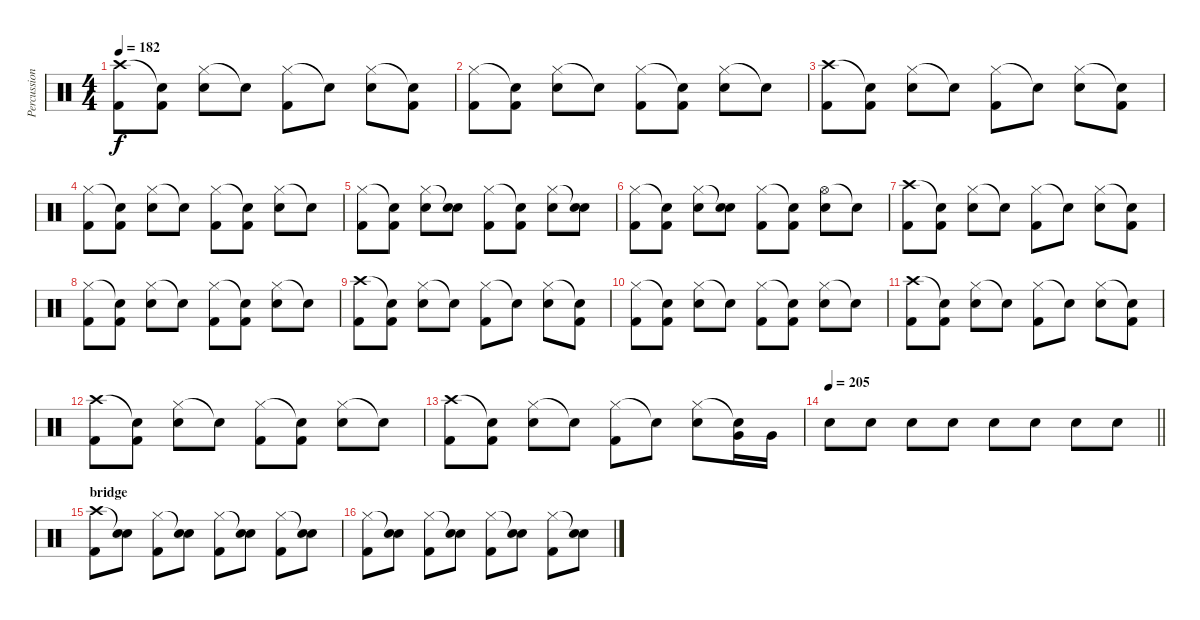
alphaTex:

\track ("Percussioni" "Percussion") {instrument percussion}
\staff {score}
\articulation defaults
\ts (4 4)
\tempo 182
\clef neutral
\ks c
("Crash high (hit)" "Kick (hit) 2").8{dy f} ("Snare (hit)"{t} "Kick (hit) 2").8 ("Hi-Hat (closed)" "Snare (hit) 2").8 "Snare (hit)"{t}.8 ("Hi-Hat (closed)" "Kick (hit) 2").8 "Snare (hit)"{t}.8 ("Hi-Hat (closed)" "Snare (hit) 2").8 ("Snare (hit)"{t} "Kick (hit) 2").8 |
("Hi-Hat (closed)" "Kick (hit) 2").8 ("Snare (hit)"{t} "Kick (hit) 2").8 ("Hi-Hat (closed)" "Snare (hit) 2").8 "Snare (hit)"{t}.8 ("Hi-Hat (closed)" "Kick (hit) 2").8 ("Snare (hit)"{t} "Kick (hit) 2").8 ("Hi-Hat (closed)" "Snare (hit) 2").8 "Snare (hit)"{t}.8 |
("Crash high (hit)" "Kick (hit) 2").8 ("Snare (hit)"{t} "Kick (hit) 2").8 ("Hi-Hat (closed)" "Snare (hit) 2").8 "Snare (hit)"{t}.8 ("Hi-Hat (closed)" "Kick (hit) 2").8 "Snare (hit)"{t}.8 ("Hi-Hat (closed)" "Snare (hit) 2").8 ("Snare (hit)"{t} "Kick (hit) 2").8 |
("Hi-Hat (closed)" "Kick (hit) 2").8 ("Snare (hit)"{t} "Kick (hit) 2").8 ("Hi-Hat (closed)" "Snare (hit) 2").8 "Snare (hit)"{t}.8 ("Hi-Hat (closed)" "Kick (hit) 2").8 ("Snare (hit)"{t} "Kick (hit) 2").8 ("Hi-Hat (closed)" "Snare (hit) 2").8 "Snare (hit)"{t}.8 |
("Hi-Hat (closed)" "Kick (hit) 2").8 ("Snare (hit)"{t} "Kick (hit) 2").8 ("Hi-Hat (closed)" "Snare (hit) 2").8 ("Snare (hit)"{t} "Snare (hit) 2").8 ("Hi-Hat (closed)" "Kick (hit) 2").8 ("Snare (hit)"{t} "Kick (hit) 2").8 ("Hi-Hat (closed)" "Snare (hit) 2").8 ("Snare (hit)"{t} "Snare (hit) 2").8 |
("Hi-Hat (closed)" "Kick (hit) 2").8 ("Snare (hit)"{t} "Kick (hit) 2").8 ("Hi-Hat (closed)" "Snare (hit) 2").8 ("Snare (hit)"{t} "Snare (hit) 2").8 ("Hi-Hat (closed)" "Kick (hit) 2").8 ("Snare (hit)"{t} "Kick (hit) 2").8 ("Hi-Hat (open)" "Snare (hit) 2").8 "Snare (hit)"{t}.8 |
("Crash high (hit)" "Kick (hit) 2").8 ("Snare (hit)"{t} "Kick (hit) 2").8 ("Hi-Hat (closed)" "Snare (hit) 2").8 "Snare (hit)"{t}.8 ("Hi-Hat (closed)" "Kick (hit) 2").8 "Snare (hit)"{t}.8 ("Hi-Hat (closed)" "Snare (hit) 2").8 ("Snare (hit)"{t} "Kick (hit) 2").8 |
("Hi-Hat (closed)" "Kick (hit) 2").8 ("Snare (hit)"{t} "Kick (hit) 2").8 ("Hi-Hat (closed)" "Snare (hit) 2").8 "Snare (hit)"{t}.8 ("Hi-Hat (closed)" "Kick (hit) 2").8 ("Snare (hit)"{t} "Kick (hit) 2").8 ("Hi-Hat (closed)" "Snare (hit) 2").8 "Snare (hit)"{t}.8 |
("Crash high (hit)" "Kick (hit) 2").8 ("Snare (hit)"{t} "Kick (hit) 2").8 ("Hi-Hat (closed)" "Snare (hit) 2").8 "Snare (hit)"{t}.8 ("Hi-Hat (closed)" "Kick (hit) 2").8 "Snare (hit)"{t}.8 ("Hi-Hat (closed)" "Snare (hit) 2").8 ("Snare (hit)"{t} "Kick (hit) 2").8 |
("Hi-Hat (closed)" "Kick (hit) 2").8 ("Snare (hit)"{t} "Kick (hit) 2").8 ("Hi-Hat (closed)" "Snare (hit) 2").8 "Snare (hit)"{t}.8 ("Hi-Hat (closed)" "Kick (hit) 2").8 ("Snare (hit)"{t} "Kick (hit) 2").8 ("Hi-Hat (closed)" "Snare (hit) 2").8 "Snare (hit)"{t}.8 |
("Crash high (hit)" "Kick (hit) 2").8 ("Snare (hit)"{t} "Kick (hit) 2").8 ("Hi-Hat (closed)" "Snare (hit) 2").8 "Snare (hit)"{t}.8 ("Hi-Hat (closed)" "Kick (hit) 2").8 "Snare (hit)"{t}.8 ("Hi-Hat (closed)" "Snare (hit) 2").8 ("Snare (hit)"{t} "Kick (hit) 2").8 |
("Crash high (hit)" "Kick (hit) 2").8 ("Snare (hit)"{t} "Kick (hit) 2").8 ("Hi-Hat (closed)" "Snare (hit) 2").8 "Snare (hit)"{t}.8 ("Hi-Hat (closed)" "Kick (hit) 2").8 ("Snare (hit)"{t} "Kick (hit) 2").8 ("Hi-Hat (closed)" "Snare (hit) 2").8 "Snare (hit)"{t}.8 |
("Crash high (hit)" "Kick (hit) 2").8 ("Snare (hit)"{t} "Kick (hit) 2").8 ("Hi-Hat (closed)" "Snare (hit) 2").8 "Snare (hit)"{t}.8 ("Hi-Hat (closed)" "Kick (hit) 2").8 "Snare (hit)"{t}.8 ("Hi-Hat (closed)" "Snare (hit) 2").8 ("Snare (hit)"{t} "Very Low Tom (hit)").16 "Very Low Tom (hit)".16 |
\tempo 205
\barLineRight lightlight "Snare (hit) 2".8 "Snare (hit) 2".8 "Snare (hit) 2".8 "Snare (hit) 2".8 "Snare (hit) 2".8 "Snare (hit) 2".8 "Snare (hit) 2".8 "Snare (hit) 2".8
|
\section ("" "bridge")
("Crash high (hit)" "Kick (hit) 2").8 ("Snare (hit)"{t} "Snare (hit) 2").8 ("Hi-Hat (closed)" "Kick (hit) 2").8 ("Snare (hit)"{t} "Snare (hit) 2").8 ("Hi-Hat (closed)" "Kick (hit) 2").8 ("Snare (hit)"{t} "Snare (hit) 2").8 ("Hi-Hat (closed)" "Kick (hit) 2").8 ("Snare (hit)"{t} "Snare (hit) 2").8 |
("Hi-Hat (closed)" "Kick (hit) 2").8 ("Snare (hit)"{t} "Snare (hit) 2").8 ("Hi-Hat (closed)" "Kick (hit) 2").8 ("Snare (hit)"{t} "Snare (hit) 2").8 ("Hi-Hat (closed)" "Kick (hit) 2").8 ("Snare (hit)"{t} "Snare (hit) 2").8 ("Hi-Hat (closed)" "Kick (hit) 2").8 ("Snare (hit)"{t} "Snare (hit) 2").8
